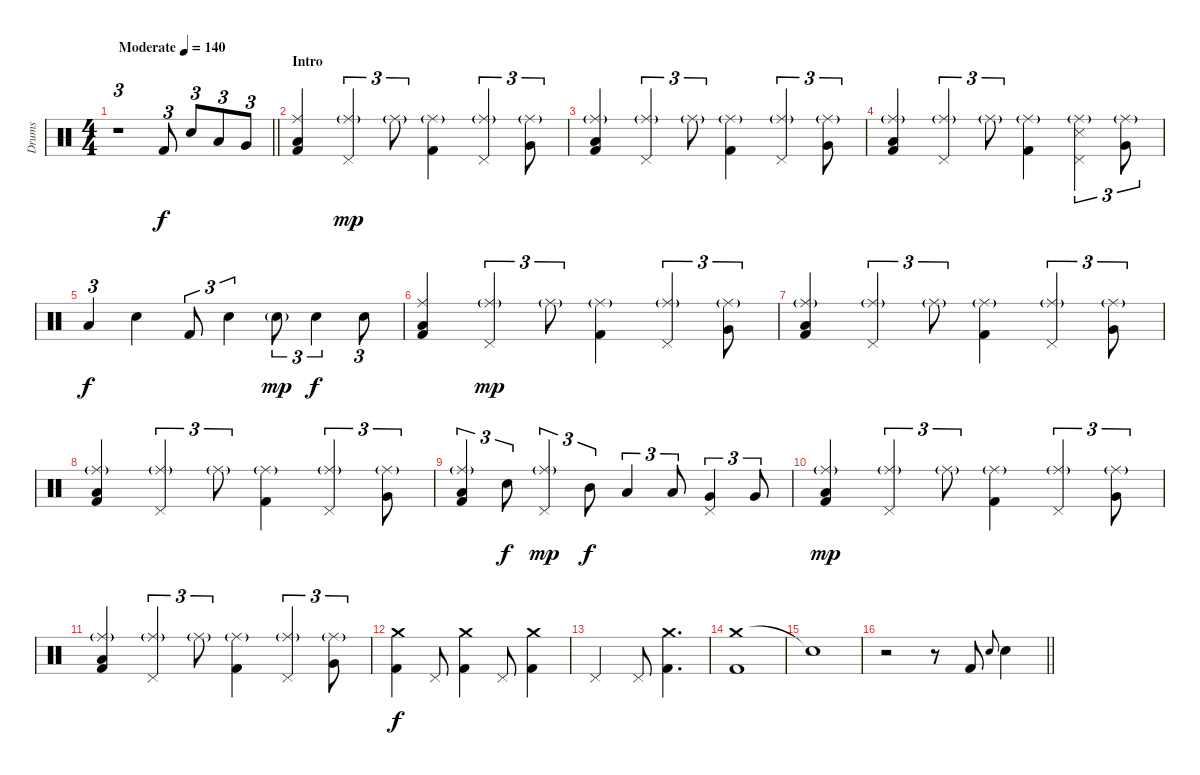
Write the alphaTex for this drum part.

\track ("Drums" "Drums") {instrument percussion}
\staff {score}
\articulation defaults
\ts (4 4)
\tempo (140 "Moderate")
\clef neutral
\barLineRight lightlight
\ks c
r.1{tu (3 2) dy f} "Kick (hit) 2".8{tu (3 2)} "Snare (hit) 2".8{tu (3 2)} "Low Tom (hit)".8{tu (3 2)} "Very Low Tom (hit)".8{tu (3 2)} |
\section ("" "Intro")
("Ride (middle)" "Low Floor Tom (hit)" "Kick (hit) 2").4 ("Ride (middle)"{g} "Pedal Hi-Hat (hit)").4{tu (3 2) dy mp} "Ride (middle)"{g}.8{tu (3 2)} ("Ride (middle)"{g} "Kick (hit) 2").4 ("Ride (middle)"{g} "Pedal Hi-Hat (hit)").4{tu (3 2)} ("Ride (middle)"{g} "Very Low Tom (hit)").8{tu (3 2)} |
("Ride (middle)"{g} "Low Floor Tom (hit)" "Kick (hit) 2").4 ("Ride (middle)"{g} "Pedal Hi-Hat (hit)").4{tu (3 2)} "Ride (middle)"{g}.8{tu (3 2)} ("Ride (middle)"{g} "Kick (hit) 2").4 ("Ride (middle)"{g} "Pedal Hi-Hat (hit)").4{tu (3 2)} ("Ride (middle)"{g} "Very Low Tom (hit)").8{tu (3 2)} |
("Ride (middle)"{g} "Low Floor Tom (hit)" "Kick (hit) 2").4 ("Ride (middle)"{g} "Pedal Hi-Hat (hit)").4{tu (3 2)} "Ride (middle)"{g}.8{tu (3 2)} ("Ride (middle)"{g} "Kick (hit) 2").4 ("Ride (middle)"{g} "Snare (side stick) 3" "Pedal Hi-Hat (hit)").4{tu (3 2)} ("Ride (middle)"{g} "Very Low Tom (hit)").8{tu (3 2)} |
"Low Floor Tom (hit)".4{tu (3 2) dy f} "Snare (hit) 2".4 "Kick (hit) 2".8{tu (3 2)} "Snare (hit) 2".4{tu (3 2)} "Snare (hit) 2"{g}.8{tu (3 2) dy mp} "Snare (hit) 2".4{tu (3 2) dy f} "Snare (hit) 2".8{tu (3 2)} |
("Ride (middle)" "Low Floor Tom (hit)" "Kick (hit) 2").4 ("Ride (middle)"{g} "Pedal Hi-Hat (hit)").4{tu (3 2) dy mp} "Ride (middle)"{g}.8{tu (3 2)} ("Ride (middle)"{g} "Kick (hit) 2").4 ("Ride (middle)"{g} "Pedal Hi-Hat (hit)").4{tu (3 2)} ("Ride (middle)"{g} "Very Low Tom (hit)").8{tu (3 2)} |
("Ride (middle)"{g} "Low Floor Tom (hit)" "Kick (hit) 2").4 ("Ride (middle)"{g} "Pedal Hi-Hat (hit)").4{tu (3 2)} "Ride (middle)"{g}.8{tu (3 2)} ("Ride (middle)"{g} "Kick (hit) 2").4 ("Ride (middle)"{g} "Pedal Hi-Hat (hit)").4{tu (3 2)} ("Ride (middle)"{g} "Very Low Tom (hit)").8{tu (3 2)} |
("Ride (middle)"{g} "Low Floor Tom (hit)" "Kick (hit) 2").4 ("Ride (middle)"{g} "Pedal Hi-Hat (hit)").4{tu (3 2)} "Ride (middle)"{g}.8{tu (3 2)} ("Ride (middle)"{g} "Kick (hit) 2").4 ("Ride (middle)"{g} "Pedal Hi-Hat (hit)").4{tu (3 2)} ("Ride (middle)"{g} "Very Low Tom (hit)").8{tu (3 2)} |
("Ride (middle)"{g} "Low Floor Tom (hit)" "Kick (hit) 2").4{tu (3 2)} "Snare (hit) 2".8{tu (3 2) dy f} ("Ride (middle)"{g} "Pedal Hi-Hat (hit)").4{tu (3 2) dy mp} "Mid Tom (hit)".8{tu (3 2) dy f} "Low Tom (hit)".4{tu (3 2)} "Low Tom (hit)".8{tu (3 2)} ("Very Low Tom (hit)" "Pedal Hi-Hat (hit)").4{tu (3 2)} "Very Low Tom (hit)".8{tu (3 2)} |
("Ride (middle)"{g} "Low Floor Tom (hit)" "Kick (hit) 2").4{dy mp} ("Ride (middle)"{g} "Pedal Hi-Hat (hit)").4{tu (3 2)} "Ride (middle)"{g}.8{tu (3 2)} ("Ride (middle)"{g} "Kick (hit) 2").4 ("Ride (middle)"{g} "Pedal Hi-Hat (hit)").4{tu (3 2)} ("Ride (middle)"{g} "Very Low Tom (hit)").8{tu (3 2)} |
("Ride (middle)"{g} "Low Floor Tom (hit)" "Kick (hit) 2").4 ("Ride (middle)"{g} "Pedal Hi-Hat (hit)").4{tu (3 2)} "Ride (middle)"{g}.8{tu (3 2)} ("Ride (middle)"{g} "Kick (hit) 2").4 ("Ride (middle)"{g} "Pedal Hi-Hat (hit)").4{tu (3 2)} ("Ride (middle)"{g} "Very Low Tom (hit)").8{tu (3 2)} |
("Crash medium (hit)" "Kick (hit) 2").4{dy f} "Pedal Hi-Hat (hit)".8 ("Crash medium (hit)" "Kick (hit) 2").4 "Pedal Hi-Hat (hit)".8 ("Crash medium (hit)" "Kick (hit) 2").4 |
"Pedal Hi-Hat (hit)".2 "Pedal Hi-Hat (hit)".8 ("Crash medium (hit)" "Kick (hit) 2").4{d} |
("Crash medium (hit)" "Kick (hit) 2").1 |
"Snare (hit)"{t}.1 |
\barLineRight lightlight
r.2 r.8 "Kick (hit) 2".8 "Snare (hit) 2".8{gr onbeat} "Snare (hit) 2".4
